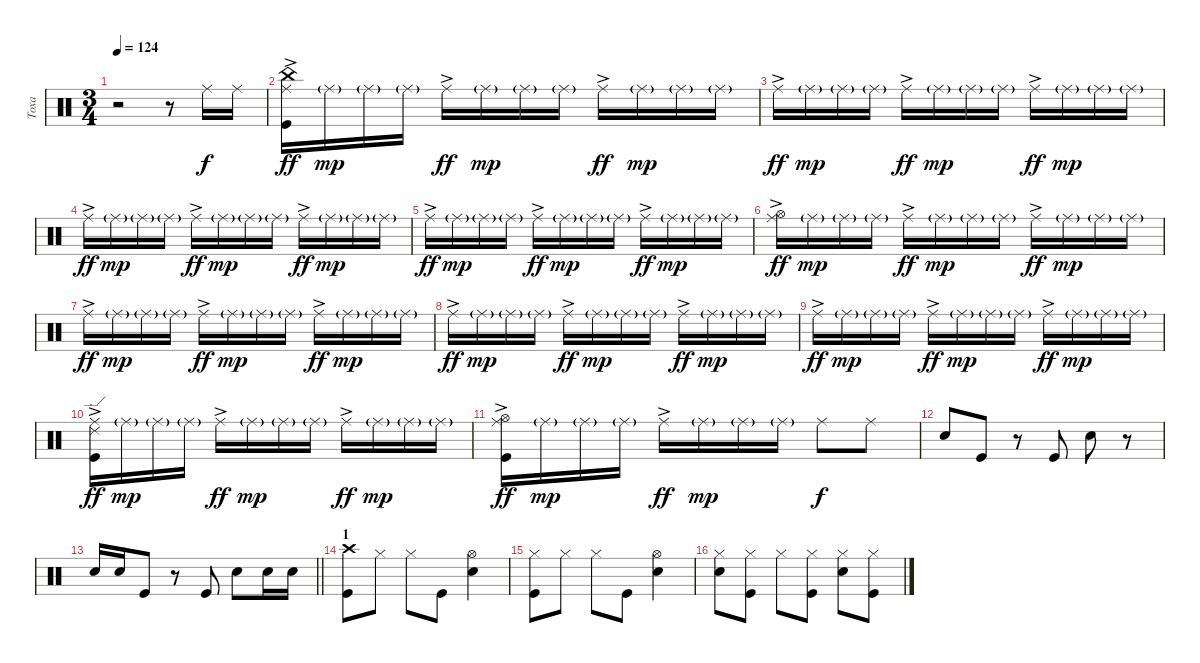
\track ("Тоха" "Тоха") {instrument percussion}
\staff {score}
\articulation defaults
\ts (3 4)
\tempo 124
\clef neutral
\ks c
r.2{dy f} r.8 "Ride (middle)".16 "Ride (middle)".16 |
("Kick (hit)" "Ride (middle)"{ac} "China (hit)").16{dy ff} "Ride (middle)"{g}.16{dy mp} "Ride (middle)"{g}.16 "Ride (middle)"{g}.16 "Ride (middle)"{ac}.16{dy ff} "Ride (middle)"{g}.16{dy mp} "Ride (middle)"{g}.16 "Ride (middle)"{g}.16 "Ride (middle)"{ac}.16{dy ff} "Ride (middle)"{g}.16{dy mp} "Ride (middle)"{g}.16 "Ride (middle)"{g}.16 |
"Ride (middle)"{ac}.16{dy ff} "Ride (middle)"{g}.16{dy mp} "Ride (middle)"{g}.16 "Ride (middle)"{g}.16 "Ride (middle)"{ac}.16{dy ff} "Ride (middle)"{g}.16{dy mp} "Ride (middle)"{g}.16 "Ride (middle)"{g}.16 "Ride (middle)"{ac}.16{dy ff} "Ride (middle)"{g}.16{dy mp} "Ride (middle)"{g}.16 "Ride (middle)"{g}.16 |
"Ride (middle)"{ac}.16{dy ff} "Ride (middle)"{g}.16{dy mp} "Ride (middle)"{g}.16 "Ride (middle)"{g}.16 "Ride (middle)"{ac}.16{dy ff} "Ride (middle)"{g}.16{dy mp} "Ride (middle)"{g}.16 "Ride (middle)"{g}.16 "Ride (middle)"{ac}.16{dy ff} "Ride (middle)"{g}.16{dy mp} "Ride (middle)"{g}.16 "Ride (middle)"{g}.16 |
"Ride (middle)"{ac}.16{dy ff} "Ride (middle)"{g}.16{dy mp} "Ride (middle)"{g}.16 "Ride (middle)"{g}.16 "Ride (middle)"{ac}.16{dy ff} "Ride (middle)"{g}.16{dy mp} "Ride (middle)"{g}.16 "Ride (middle)"{g}.16 "Ride (middle)"{ac}.16{dy ff} "Ride (middle)"{g}.16{dy mp} "Ride (middle)"{g}.16 "Ride (middle)"{g}.16 |
("Ride (middle)"{ac} "Hi-Hat (open)").16{dy ff} "Ride (middle)"{g}.16{dy mp} "Ride (middle)"{g}.16 "Ride (middle)"{g}.16 "Ride (middle)"{ac}.16{dy ff} "Ride (middle)"{g}.16{dy mp} "Ride (middle)"{g}.16 "Ride (middle)"{g}.16 "Ride (middle)"{ac}.16{dy ff} "Ride (middle)"{g}.16{dy mp} "Ride (middle)"{g}.16 "Ride (middle)"{g}.16 |
"Ride (middle)"{ac}.16{dy ff} "Ride (middle)"{g}.16{dy mp} "Ride (middle)"{g}.16 "Ride (middle)"{g}.16 "Ride (middle)"{ac}.16{dy ff} "Ride (middle)"{g}.16{dy mp} "Ride (middle)"{g}.16 "Ride (middle)"{g}.16 "Ride (middle)"{ac}.16{dy ff} "Ride (middle)"{g}.16{dy mp} "Ride (middle)"{g}.16 "Ride (middle)"{g}.16 |
"Ride (middle)"{ac}.16{dy ff} "Ride (middle)"{g}.16{dy mp} "Ride (middle)"{g}.16 "Ride (middle)"{g}.16 "Ride (middle)"{ac}.16{dy ff} "Ride (middle)"{g}.16{dy mp} "Ride (middle)"{g}.16 "Ride (middle)"{g}.16 "Ride (middle)"{ac}.16{dy ff} "Ride (middle)"{g}.16{dy mp} "Ride (middle)"{g}.16 "Ride (middle)"{g}.16 |
"Ride (middle)"{ac}.16{dy ff} "Ride (middle)"{g}.16{dy mp} "Ride (middle)"{g}.16 "Ride (middle)"{g}.16 "Ride (middle)"{ac}.16{dy ff} "Ride (middle)"{g}.16{dy mp} "Ride (middle)"{g}.16 "Ride (middle)"{g}.16 "Ride (middle)"{ac}.16{dy ff} "Ride (middle)"{g}.16{dy mp} "Ride (middle)"{g}.16 "Ride (middle)"{g}.16 |
("Kick (hit)" "Ride (middle)"{ac} "Ride (edge) 2").16{dy ff} "Ride (middle)"{g}.16{dy mp} "Ride (middle)"{g}.16 "Ride (middle)"{g}.16 "Ride (middle)"{ac}.16{dy ff} "Ride (middle)"{g}.16{dy mp} "Ride (middle)"{g}.16 "Ride (middle)"{g}.16 "Ride (middle)"{ac}.16{dy ff} "Ride (middle)"{g}.16{dy mp} "Ride (middle)"{g}.16 "Ride (middle)"{g}.16 |
("Kick (hit)" "Ride (middle)"{ac} "Hi-Hat (open)").16{dy ff} "Ride (middle)"{g}.16{dy mp} "Ride (middle)"{g}.16 "Ride (middle)"{g}.16 "Ride (middle)"{ac}.16{dy ff} "Ride (middle)"{g}.16{dy mp} "Ride (middle)"{g}.16 "Ride (middle)"{g}.16 "Ride (middle)".8{dy f} "Ride (middle)".8 |
"Snare (hit) 2".8 "Kick (hit)".8 r.8 "Kick (hit)".8 "Snare (hit) 2".8 r.8 |
\barLineRight lightlight "Snare (hit) 2".16 "Snare (hit) 2".16 "Kick (hit)".8
r.8 "Kick (hit)".8 "Snare (hit) 2".8 "Snare (hit) 2".16 "Snare (hit) 2".16 |
\section ("" "1")
("Kick (hit)" "Crash high (hit)").8 "Hi-Hat (closed)".8 "Hi-Hat (closed)".8 "Kick (hit)".8 ("Snare (hit) 2" "Hi-Hat (open)").4 |
("Kick (hit)" "Hi-Hat (closed)").8 "Hi-Hat (closed)".8 "Hi-Hat (closed)".8 "Kick (hit)".8 ("Snare (hit) 2" "Hi-Hat (open)").4 |
("Snare (hit) 2" "Hi-Hat (closed)").8 ("Kick (hit)" "Hi-Hat (closed)").8 "Hi-Hat (closed)".8 ("Kick (hit)" "Hi-Hat (closed)").8 ("Snare (hit) 2" "Hi-Hat (closed)").8 ("Kick (hit)" "Hi-Hat (closed)").8
